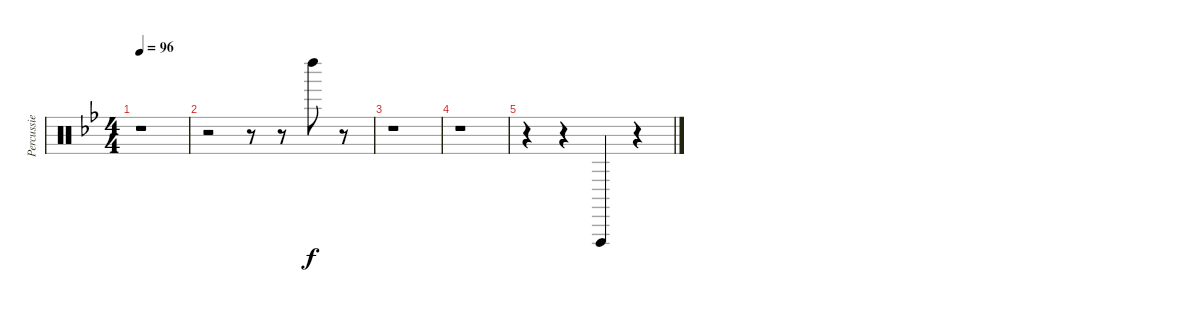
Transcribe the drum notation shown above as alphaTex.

\track ("Percussie" "Percussie") {instrument percussion}
\staff {score}
\articulation defaults
\ts (4 4)
\tempo 96
\clef neutral
\ks bb
r.1{dy f} |
r.2 r.8 r.8 "Left Maraca (hit)".8 r.8 |
r.1 |
r.1 |
r.4 r.4 "Vibraslap (hit)".4 r.4
